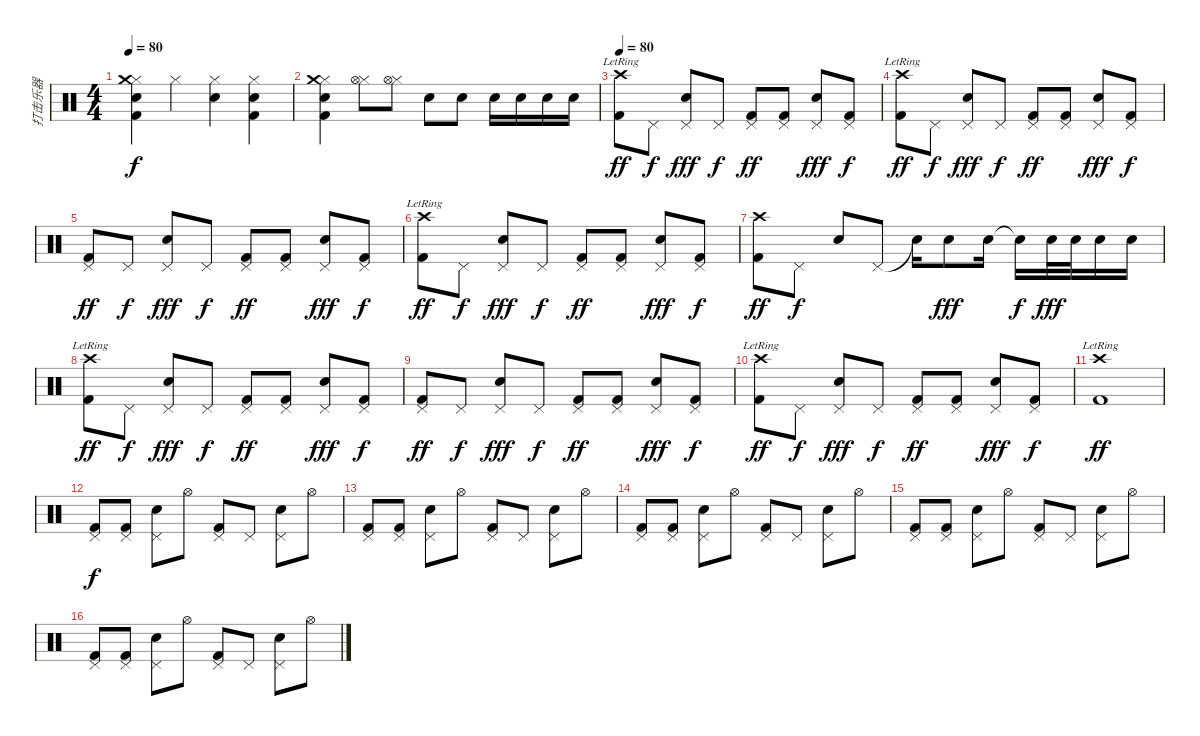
\track ("打击乐器" "打击乐器") {instrument percussion}
\staff {score}
\articulation defaults
\ts (4 4)
\tempo 80
\clef neutral
\ks c
("Hi-Hat (closed)" "Snare (hit) 2" "Kick (hit) 2" "Crash medium (hit)").4{dy f} "Hi-Hat (closed)".4 ("Hi-Hat (closed)" "Hand Clap (hit)").4 ("Hi-Hat (closed)" "Snare (hit) 2" "Kick (hit) 2").4 |
("Hi-Hat (closed)" "Snare (hit) 2" "Kick (hit) 2" "Crash medium (hit)").4 ("Hi-Hat (closed)" "Hi-Hat (open)").8 ("Hi-Hat (closed)" "Hi-Hat (open)").8 "Electric Snare (hit)".8 "Electric Snare (hit)".8 "Snare (hit) 2".16 "Snare (hit) 2".16 "Snare (hit) 2".16 "Snare (hit) 2".16 |
\tempo 80
("Crash high (hit)"{lr} "Kick (hit) 2").8{dy ff} "Pedal Hi-Hat (hit)".8{dy f} ("Pedal Hi-Hat (hit)" "Electric Snare (hit)").8{dy fff} "Pedal Hi-Hat (hit)".8{dy f} ("Pedal Hi-Hat (hit)" "Kick (hit) 2").8{dy ff} ("Pedal Hi-Hat (hit)" "Kick (hit) 2").8 ("Pedal Hi-Hat (hit)" "Electric Snare (hit)").8{dy fff} ("Pedal Hi-Hat (hit)" "Kick (hit) 2").8{dy f} |
("Crash high (hit)"{lr} "Kick (hit) 2").8{dy ff} "Pedal Hi-Hat (hit)".8{dy f} ("Pedal Hi-Hat (hit)" "Electric Snare (hit)").8{dy fff} "Pedal Hi-Hat (hit)".8{dy f} ("Pedal Hi-Hat (hit)" "Kick (hit) 2").8{dy ff} ("Pedal Hi-Hat (hit)" "Kick (hit) 2").8 ("Pedal Hi-Hat (hit)" "Electric Snare (hit)").8{dy fff} ("Pedal Hi-Hat (hit)" "Kick (hit) 2").8{dy f} |
("Pedal Hi-Hat (hit)" "Kick (hit) 2").8{dy ff} "Pedal Hi-Hat (hit)".8{dy f} ("Pedal Hi-Hat (hit)" "Electric Snare (hit)").8{dy fff} "Pedal Hi-Hat (hit)".8{dy f} ("Pedal Hi-Hat (hit)" "Kick (hit) 2").8{dy ff} ("Pedal Hi-Hat (hit)" "Kick (hit) 2").8 ("Pedal Hi-Hat (hit)" "Electric Snare (hit)").8{dy fff} ("Pedal Hi-Hat (hit)" "Kick (hit) 2").8{dy f} |
("Crash high (hit)"{lr} "Kick (hit) 2").8{dy ff} "Pedal Hi-Hat (hit)".8{dy f} ("Pedal Hi-Hat (hit)" "Electric Snare (hit)").8{dy fff} "Pedal Hi-Hat (hit)".8{dy f} ("Pedal Hi-Hat (hit)" "Kick (hit) 2").8{dy ff} ("Pedal Hi-Hat (hit)" "Kick (hit) 2").8 ("Pedal Hi-Hat (hit)" "Electric Snare (hit)").8{dy fff} ("Pedal Hi-Hat (hit)" "Kick (hit) 2").8{dy f} |
("Crash high (hit)" "Kick (hit) 2").8{dy ff} "Pedal Hi-Hat (hit)".8{dy f} "Electric Snare (hit)".8 "Pedal Hi-Hat (hit)".8 "Snare (hit)"{t}.16 "Electric Snare (hit)".8{dy fff} "Electric Snare (hit)".16 "Snare (hit)"{t}.16{dy f} "Electric Snare (hit)".32{dy fff} "Electric Snare (hit)".32 "Electric Snare (hit)".16 "Electric Snare (hit)".16 |
("Crash high (hit)"{lr} "Kick (hit) 2").8{dy ff} "Pedal Hi-Hat (hit)".8{dy f} ("Pedal Hi-Hat (hit)" "Electric Snare (hit)").8{dy fff} "Pedal Hi-Hat (hit)".8{dy f} ("Pedal Hi-Hat (hit)" "Kick (hit) 2").8{dy ff} ("Pedal Hi-Hat (hit)" "Kick (hit) 2").8 ("Pedal Hi-Hat (hit)" "Electric Snare (hit)").8{dy fff} ("Pedal Hi-Hat (hit)" "Kick (hit) 2").8{dy f} |
("Pedal Hi-Hat (hit)" "Kick (hit) 2").8{dy ff} "Pedal Hi-Hat (hit)".8{dy f} ("Pedal Hi-Hat (hit)" "Electric Snare (hit)").8{dy fff} "Pedal Hi-Hat (hit)".8{dy f} ("Pedal Hi-Hat (hit)" "Kick (hit) 2").8{dy ff} ("Pedal Hi-Hat (hit)" "Kick (hit) 2").8 ("Pedal Hi-Hat (hit)" "Electric Snare (hit)").8{dy fff} ("Pedal Hi-Hat (hit)" "Kick (hit) 2").8{dy f} |
("Crash high (hit)"{lr} "Kick (hit) 2").8{dy ff} "Pedal Hi-Hat (hit)".8{dy f} ("Pedal Hi-Hat (hit)" "Electric Snare (hit)").8{dy fff} "Pedal Hi-Hat (hit)".8{dy f} ("Pedal Hi-Hat (hit)" "Kick (hit) 2").8{dy ff} ("Pedal Hi-Hat (hit)" "Kick (hit) 2").8 ("Pedal Hi-Hat (hit)" "Electric Snare (hit)").8{dy fff} ("Pedal Hi-Hat (hit)" "Kick (hit) 2").8{dy f} |
("Crash high (hit)"{lr} "Kick (hit) 2").1{dy ff} |
("Pedal Hi-Hat (hit)" "Kick (hit) 2").8{dy f} ("Pedal Hi-Hat (hit)" "Kick (hit) 2").8 ("Pedal Hi-Hat (hit)" "Snare (hit) 2").8 "Hi-Hat (open)".8 ("Pedal Hi-Hat (hit)" "Kick (hit) 2").8 "Pedal Hi-Hat (hit)".8 ("Pedal Hi-Hat (hit)" "Snare (hit) 2").8 "Hi-Hat (open)".8 |
("Pedal Hi-Hat (hit)" "Kick (hit) 2").8 ("Pedal Hi-Hat (hit)" "Kick (hit) 2").8 ("Pedal Hi-Hat (hit)" "Snare (hit) 2").8 "Hi-Hat (open)".8 ("Pedal Hi-Hat (hit)" "Kick (hit) 2").8 "Pedal Hi-Hat (hit)".8 ("Pedal Hi-Hat (hit)" "Snare (hit) 2").8 "Hi-Hat (open)".8 |
("Pedal Hi-Hat (hit)" "Kick (hit) 2").8 ("Pedal Hi-Hat (hit)" "Kick (hit) 2").8 ("Pedal Hi-Hat (hit)" "Snare (hit) 2").8 "Hi-Hat (open)".8 ("Pedal Hi-Hat (hit)" "Kick (hit) 2").8 "Pedal Hi-Hat (hit)".8 ("Pedal Hi-Hat (hit)" "Snare (hit) 2").8 "Hi-Hat (open)".8 |
("Pedal Hi-Hat (hit)" "Kick (hit) 2").8 ("Pedal Hi-Hat (hit)" "Kick (hit) 2").8 ("Pedal Hi-Hat (hit)" "Snare (hit) 2").8 "Hi-Hat (open)".8 ("Pedal Hi-Hat (hit)" "Kick (hit) 2").8 "Pedal Hi-Hat (hit)".8 ("Pedal Hi-Hat (hit)" "Snare (hit) 2").8 "Hi-Hat (open)".8 |
("Pedal Hi-Hat (hit)" "Kick (hit) 2").8 ("Pedal Hi-Hat (hit)" "Kick (hit) 2").8 ("Pedal Hi-Hat (hit)" "Snare (hit) 2").8 "Hi-Hat (open)".8 ("Pedal Hi-Hat (hit)" "Kick (hit) 2").8 "Pedal Hi-Hat (hit)".8 ("Pedal Hi-Hat (hit)" "Snare (hit) 2").8 "Hi-Hat (open)".8
